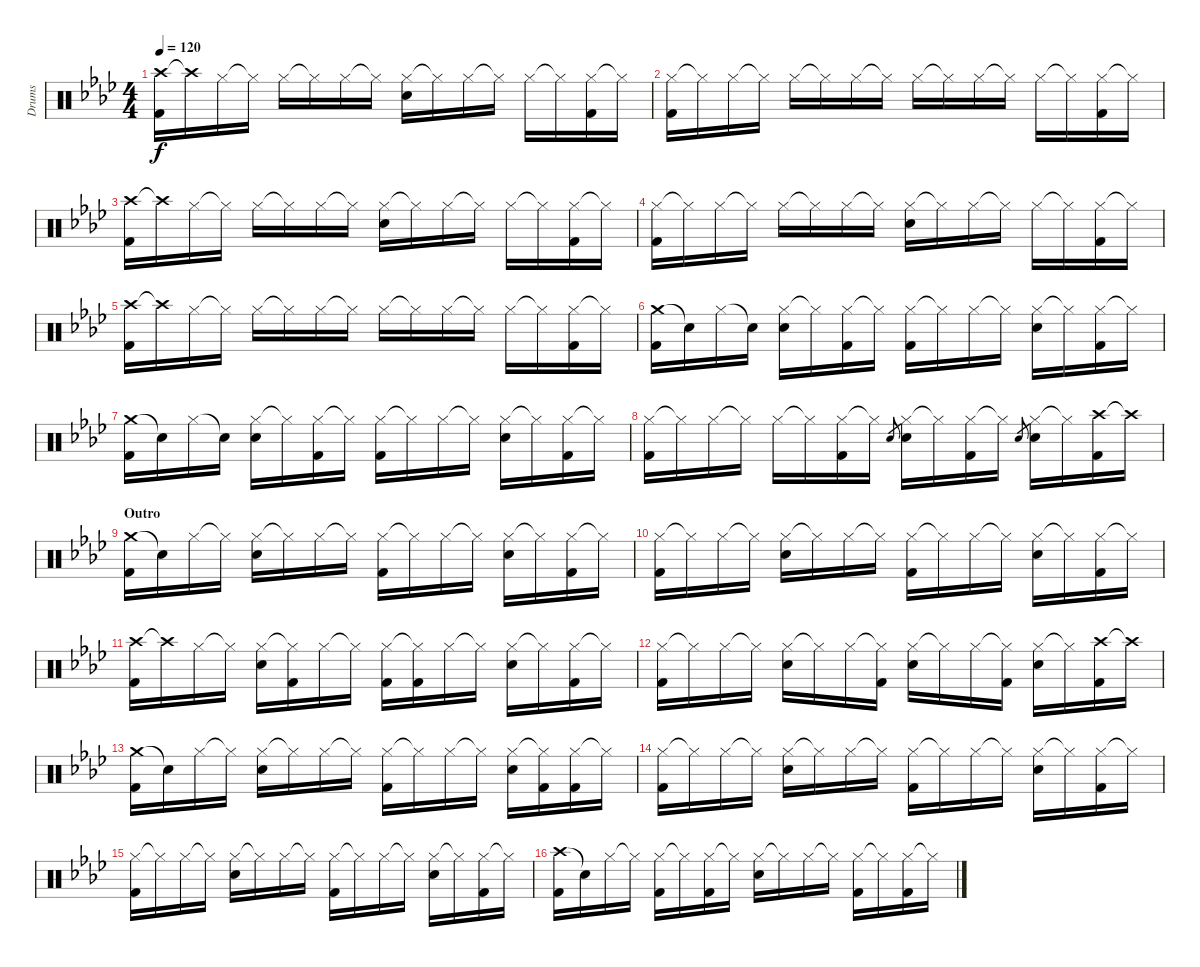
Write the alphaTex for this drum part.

\track ("Drums" "Drums") {instrument percussion}
\staff {score}
\articulation defaults
\ts (4 4)
\tempo 120
\clef neutral
\ks ab
("Crash high (hit)" "Kick (hit) 2").16{dy f} "Crash high (hit)"{t}.16 "Hi-Hat (closed)".16 "Hi-Hat (closed)"{t}.16 "Hi-Hat (closed)".16 "Hi-Hat (closed)"{t}.16 "Hi-Hat (closed)".16 "Hi-Hat (closed)"{t}.16 ("Hi-Hat (closed)" "Snare (hit) 2").16 "Hi-Hat (closed)"{t}.16 "Hi-Hat (closed)".16 "Hi-Hat (closed)"{t}.16 "Hi-Hat (closed)".16 "Hi-Hat (closed)"{t}.16 ("Hi-Hat (closed)" "Kick (hit) 2").16 "Hi-Hat (closed)"{t}.16 |
("Hi-Hat (closed)" "Kick (hit) 2").16 "Hi-Hat (closed)"{t}.16 "Hi-Hat (closed)".16 "Hi-Hat (closed)"{t}.16 "Hi-Hat (closed)".16 "Hi-Hat (closed)"{t}.16 "Hi-Hat (closed)".16 "Hi-Hat (closed)"{t}.16 "Hi-Hat (closed)".16 "Hi-Hat (closed)"{t}.16 "Hi-Hat (closed)".16 "Hi-Hat (closed)"{t}.16 "Hi-Hat (closed)".16 "Hi-Hat (closed)"{t}.16 ("Hi-Hat (closed)" "Kick (hit) 2").16 "Hi-Hat (closed)"{t}.16 |
("Crash high (hit)" "Kick (hit) 2").16 "Crash high (hit)"{t}.16 "Hi-Hat (closed)".16 "Hi-Hat (closed)"{t}.16 "Hi-Hat (closed)".16 "Hi-Hat (closed)"{t}.16 "Hi-Hat (closed)".16 "Hi-Hat (closed)"{t}.16 ("Hi-Hat (closed)" "Snare (hit) 2").16 "Hi-Hat (closed)"{t}.16 "Hi-Hat (closed)".16 "Hi-Hat (closed)"{t}.16 "Hi-Hat (closed)".16 "Hi-Hat (closed)"{t}.16 ("Hi-Hat (closed)" "Kick (hit) 2").16 "Hi-Hat (closed)"{t}.16 |
("Hi-Hat (closed)" "Kick (hit) 2").16 "Hi-Hat (closed)"{t}.16 "Hi-Hat (closed)".16 "Hi-Hat (closed)"{t}.16 "Hi-Hat (closed)".16 "Hi-Hat (closed)"{t}.16 "Hi-Hat (closed)".16 "Hi-Hat (closed)"{t}.16 ("Hi-Hat (closed)" "Snare (hit) 2").16 "Hi-Hat (closed)"{t}.16 "Hi-Hat (closed)".16 "Hi-Hat (closed)"{t}.16 "Hi-Hat (closed)".16 "Hi-Hat (closed)"{t}.16 ("Hi-Hat (closed)" "Kick (hit) 2").16 "Hi-Hat (closed)"{t}.16 |
("Crash high (hit)" "Kick (hit) 2").16 "Crash high (hit)"{t}.16 "Hi-Hat (closed)".16 "Hi-Hat (closed)"{t}.16 "Hi-Hat (closed)".16 "Hi-Hat (closed)"{t}.16 "Hi-Hat (closed)".16 "Hi-Hat (closed)"{t}.16 "Hi-Hat (closed)".16 "Hi-Hat (closed)"{t}.16 "Hi-Hat (closed)".16 "Hi-Hat (closed)"{t}.16 "Hi-Hat (closed)".16 "Hi-Hat (closed)"{t}.16 ("Hi-Hat (closed)" "Kick (hit) 2").16 "Hi-Hat (closed)"{t}.16 |
("Crash medium (hit)" "Kick (hit) 2").16 "Snare (hit)"{t}.16 "Hi-Hat (closed)".16 "Snare (hit)"{t}.16 ("Hi-Hat (closed)" "Snare (hit) 2").16 "Hi-Hat (closed)"{t}.16 ("Hi-Hat (closed)" "Kick (hit) 2").16 "Hi-Hat (closed)"{t}.16 ("Hi-Hat (closed)" "Kick (hit) 2").16 "Hi-Hat (closed)"{t}.16 "Hi-Hat (closed)".16 "Hi-Hat (closed)"{t}.16 ("Hi-Hat (closed)" "Snare (hit) 2").16 "Hi-Hat (closed)"{t}.16 ("Hi-Hat (closed)" "Kick (hit) 2").16 "Hi-Hat (closed)"{t}.16 |
("Crash medium (hit)" "Kick (hit) 2").16 "Snare (hit)"{t}.16 "Hi-Hat (closed)".16 "Snare (hit)"{t}.16 ("Hi-Hat (closed)" "Snare (hit) 2").16 "Hi-Hat (closed)"{t}.16 ("Hi-Hat (closed)" "Kick (hit) 2").16 "Hi-Hat (closed)"{t}.16 ("Hi-Hat (closed)" "Kick (hit) 2").16 "Hi-Hat (closed)"{t}.16 "Hi-Hat (closed)".16 "Hi-Hat (closed)"{t}.16 ("Hi-Hat (closed)" "Snare (hit) 2").16 "Hi-Hat (closed)"{t}.16 ("Hi-Hat (closed)" "Kick (hit) 2").16 "Hi-Hat (closed)"{t}.16 |
("Hi-Hat (closed)" "Kick (hit) 2").16 "Hi-Hat (closed)"{t}.16 "Hi-Hat (closed)".16 "Hi-Hat (closed)"{t}.16 "Hi-Hat (closed)".16 "Hi-Hat (closed)"{t}.16 ("Hi-Hat (closed)" "Kick (hit) 2").16 "Hi-Hat (closed)"{t}.16 "Snare (hit) 2".8{gr} ("Hi-Hat (closed)" "Snare (hit) 2").16 "Hi-Hat (closed)"{t}.16 ("Hi-Hat (closed)" "Kick (hit) 2").16 "Hi-Hat (closed)"{t}.16 "Snare (hit) 2".8{gr} ("Hi-Hat (closed)" "Snare (hit) 2").16 "Hi-Hat (closed)"{t}.16 ("Crash high (hit)" "Kick (hit) 2").16 "Crash high (hit)"{t}.16 |
\section ("" "Outro")
("Crash medium (hit)" "Kick (hit) 2").16 "Snare (hit)"{t}.16 "Hi-Hat (closed)".16 "Hi-Hat (closed)"{t}.16 ("Hi-Hat (closed)" "Snare (hit) 2").16 "Hi-Hat (closed)"{t}.16 "Hi-Hat (closed)".16 "Hi-Hat (closed)"{t}.16 ("Hi-Hat (closed)" "Kick (hit) 2").16 "Hi-Hat (closed)"{t}.16 "Hi-Hat (closed)".16 "Hi-Hat (closed)"{t}.16 ("Hi-Hat (closed)" "Snare (hit) 2").16 "Hi-Hat (closed)"{t}.16 ("Hi-Hat (closed)" "Kick (hit) 2").16 "Hi-Hat (closed)"{t}.16 |
("Hi-Hat (closed)" "Kick (hit) 2").16 "Hi-Hat (closed)"{t}.16 "Hi-Hat (closed)".16 "Hi-Hat (closed)"{t}.16 ("Hi-Hat (closed)" "Snare (hit) 2").16 "Hi-Hat (closed)"{t}.16 "Hi-Hat (closed)".16 "Hi-Hat (closed)"{t}.16 ("Hi-Hat (closed)" "Kick (hit) 2").16 "Hi-Hat (closed)"{t}.16 "Hi-Hat (closed)".16 "Hi-Hat (closed)"{t}.16 ("Hi-Hat (closed)" "Snare (hit) 2").16 "Hi-Hat (closed)"{t}.16 ("Hi-Hat (closed)" "Kick (hit) 2").16 "Hi-Hat (closed)"{t}.16 |
("Crash high (hit)" "Kick (hit) 2").16 "Crash high (hit)"{t}.16 "Hi-Hat (closed)".16 "Hi-Hat (closed)"{t}.16 ("Hi-Hat (closed)" "Snare (hit) 2").16 ("Hi-Hat (closed)"{t} "Kick (hit) 2").16 "Hi-Hat (closed)".16 "Hi-Hat (closed)"{t}.16 ("Hi-Hat (closed)" "Kick (hit) 2").16 ("Hi-Hat (closed)"{t} "Kick (hit) 2").16 "Hi-Hat (closed)".16 "Hi-Hat (closed)"{t}.16 ("Hi-Hat (closed)" "Snare (hit) 2").16 "Hi-Hat (closed)"{t}.16 ("Hi-Hat (closed)" "Kick (hit) 2").16 "Hi-Hat (closed)"{t}.16 |
("Hi-Hat (closed)" "Kick (hit) 2").16 "Hi-Hat (closed)"{t}.16 "Hi-Hat (closed)".16 "Hi-Hat (closed)"{t}.16 ("Hi-Hat (closed)" "Snare (hit) 2").16 "Hi-Hat (closed)"{t}.16 "Hi-Hat (closed)".16 ("Hi-Hat (closed)"{t} "Kick (hit) 2").16 ("Hi-Hat (closed)" "Snare (hit) 2").16 "Hi-Hat (closed)"{t}.16 "Hi-Hat (closed)".16 ("Hi-Hat (closed)"{t} "Kick (hit) 2").16 ("Hi-Hat (closed)" "Snare (hit) 2").16 "Hi-Hat (closed)"{t}.16 ("Crash high (hit)" "Kick (hit) 2").16 "Crash high (hit)"{t}.16 |
("Crash medium (hit)" "Kick (hit) 2").16 "Snare (hit)"{t}.16 "Hi-Hat (closed)".16 "Hi-Hat (closed)"{t}.16 ("Hi-Hat (closed)" "Snare (hit) 2").16 "Hi-Hat (closed)"{t}.16 "Hi-Hat (closed)".16 "Hi-Hat (closed)"{t}.16 ("Hi-Hat (closed)" "Kick (hit) 2").16 "Hi-Hat (closed)"{t}.16 "Hi-Hat (closed)".16 "Hi-Hat (closed)"{t}.16 ("Hi-Hat (closed)" "Snare (hit) 2").16 ("Hi-Hat (closed)"{t} "Kick (hit) 2").16 ("Hi-Hat (closed)" "Kick (hit) 2").16 "Hi-Hat (closed)"{t}.16 |
("Hi-Hat (closed)" "Kick (hit) 2").16 "Hi-Hat (closed)"{t}.16 "Hi-Hat (closed)".16 "Hi-Hat (closed)"{t}.16 ("Hi-Hat (closed)" "Snare (hit) 2").16 "Hi-Hat (closed)"{t}.16 "Hi-Hat (closed)".16 "Hi-Hat (closed)"{t}.16 ("Hi-Hat (closed)" "Kick (hit) 2").16 "Hi-Hat (closed)"{t}.16 "Hi-Hat (closed)".16 "Hi-Hat (closed)"{t}.16 ("Hi-Hat (closed)" "Snare (hit) 2").16 "Hi-Hat (closed)"{t}.16 ("Hi-Hat (closed)" "Kick (hit) 2").16 "Hi-Hat (closed)"{t}.16 |
("Hi-Hat (closed)" "Kick (hit) 2").16 "Hi-Hat (closed)"{t}.16 "Hi-Hat (closed)".16 "Hi-Hat (closed)"{t}.16 ("Hi-Hat (closed)" "Snare (hit) 2").16 "Hi-Hat (closed)"{t}.16 "Hi-Hat (closed)".16 "Hi-Hat (closed)"{t}.16 ("Hi-Hat (closed)" "Kick (hit) 2").16 "Hi-Hat (closed)"{t}.16 "Hi-Hat (closed)".16 "Hi-Hat (closed)"{t}.16 ("Hi-Hat (closed)" "Snare (hit) 2").16 "Hi-Hat (closed)"{t}.16 ("Hi-Hat (closed)" "Kick (hit) 2").16 "Hi-Hat (closed)"{t}.16 |
("Crash high (hit)" "Kick (hit) 2").16 "Snare (hit)"{t}.16 "Hi-Hat (closed)".16 "Hi-Hat (closed)"{t}.16 ("Hi-Hat (closed)" "Kick (hit) 2").16 "Hi-Hat (closed)"{t}.16 ("Hi-Hat (closed)" "Kick (hit) 2").16 "Hi-Hat (closed)"{t}.16 ("Hi-Hat (closed)" "Snare (hit) 2").16 "Hi-Hat (closed)"{t}.16 "Hi-Hat (closed)".16 "Hi-Hat (closed)"{t}.16 ("Hi-Hat (closed)" "Kick (hit) 2").16 "Hi-Hat (closed)"{t}.16 ("Hi-Hat (closed)" "Kick (hit) 2").16 "Hi-Hat (closed)"{t}.16
